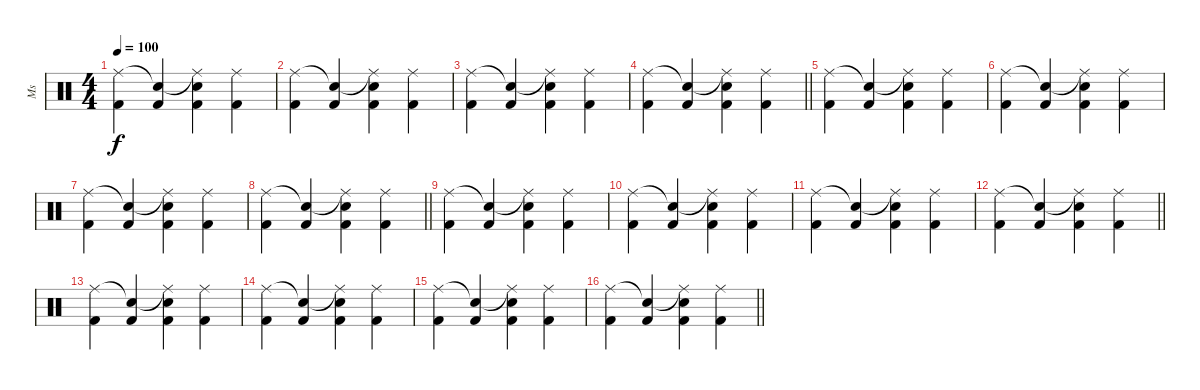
\track ("Ms" "Ms") {instrument percussion}
\staff {score}
\articulation defaults
\ts (4 4)
\tempo 100
\clef neutral
\ks c
("Ride (middle)" "Kick (hit) 2").4{dy f} ("Snare (hit)"{t} "Kick (hit) 2").4 ("Ride (middle)"{t} "Electric Snare (hit)" "Kick (hit) 2").4 ("Ride (middle)" "Kick (hit) 2").4 |
("Ride (middle)" "Kick (hit) 2").4 ("Snare (hit)"{t} "Kick (hit) 2").4 ("Ride (middle)"{t} "Electric Snare (hit)" "Kick (hit) 2").4 ("Ride (middle)" "Kick (hit) 2").4 |
("Ride (middle)" "Kick (hit) 2").4 ("Snare (hit)"{t} "Kick (hit) 2").4 ("Ride (middle)"{t} "Electric Snare (hit)" "Kick (hit) 2").4 ("Ride (middle)" "Kick (hit) 2").4 |
\barLineRight lightlight
("Ride (middle)" "Kick (hit) 2").4 ("Snare (hit)"{t} "Kick (hit) 2").4 ("Ride (middle)"{t} "Electric Snare (hit)" "Kick (hit) 2").4 ("Ride (middle)" "Kick (hit) 2").4 |
("Ride (middle)" "Kick (hit) 2").4 ("Snare (hit)"{t} "Kick (hit) 2").4 ("Ride (middle)"{t} "Electric Snare (hit)" "Kick (hit) 2").4 ("Ride (middle)" "Kick (hit) 2").4 |
("Ride (middle)" "Kick (hit) 2").4 ("Snare (hit)"{t} "Kick (hit) 2").4 ("Ride (middle)"{t} "Electric Snare (hit)" "Kick (hit) 2").4 ("Ride (middle)" "Kick (hit) 2").4 |
("Ride (middle)" "Kick (hit) 2").4 ("Snare (hit)"{t} "Kick (hit) 2").4 ("Ride (middle)"{t} "Electric Snare (hit)" "Kick (hit) 2").4 ("Ride (middle)" "Kick (hit) 2").4 |
\barLineRight lightlight
("Ride (middle)" "Kick (hit) 2").4 ("Snare (hit)"{t} "Kick (hit) 2").4 ("Ride (middle)"{t} "Electric Snare (hit)" "Kick (hit) 2").4 ("Ride (middle)" "Kick (hit) 2").4 |
("Ride (middle)" "Kick (hit) 2").4 ("Snare (hit)"{t} "Kick (hit) 2").4 ("Ride (middle)"{t} "Electric Snare (hit)" "Kick (hit) 2").4 ("Ride (middle)" "Kick (hit) 2").4 |
("Ride (middle)" "Kick (hit) 2").4 ("Snare (hit)"{t} "Kick (hit) 2").4 ("Ride (middle)"{t} "Electric Snare (hit)" "Kick (hit) 2").4 ("Ride (middle)" "Kick (hit) 2").4 |
("Ride (middle)" "Kick (hit) 2").4 ("Snare (hit)"{t} "Kick (hit) 2").4 ("Ride (middle)"{t} "Electric Snare (hit)" "Kick (hit) 2").4 ("Ride (middle)" "Kick (hit) 2").4 |
\barLineRight lightlight
("Ride (middle)" "Kick (hit) 2").4 ("Snare (hit)"{t} "Kick (hit) 2").4 ("Ride (middle)"{t} "Electric Snare (hit)" "Kick (hit) 2").4 ("Ride (middle)" "Kick (hit) 2").4 |
("Ride (middle)" "Kick (hit) 2").4 ("Snare (hit)"{t} "Kick (hit) 2").4 ("Ride (middle)"{t} "Electric Snare (hit)" "Kick (hit) 2").4 ("Ride (middle)" "Kick (hit) 2").4 |
("Ride (middle)" "Kick (hit) 2").4 ("Snare (hit)"{t} "Kick (hit) 2").4 ("Ride (middle)"{t} "Electric Snare (hit)" "Kick (hit) 2").4 ("Ride (middle)" "Kick (hit) 2").4 |
("Ride (middle)" "Kick (hit) 2").4 ("Snare (hit)"{t} "Kick (hit) 2").4 ("Ride (middle)"{t} "Electric Snare (hit)" "Kick (hit) 2").4 ("Ride (middle)" "Kick (hit) 2").4 |
\barLineRight lightlight
("Ride (middle)" "Kick (hit) 2").4 ("Snare (hit)"{t} "Kick (hit) 2").4 ("Ride (middle)"{t} "Electric Snare (hit)" "Kick (hit) 2").4 ("Ride (middle)" "Kick (hit) 2").4
